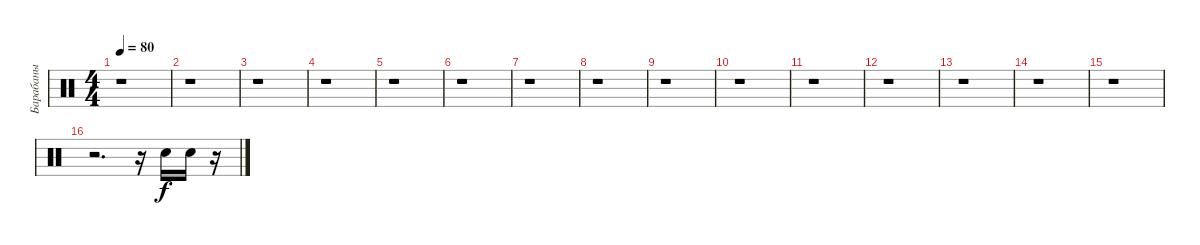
\track ("Барабаны" "Барабаны") {instrument percussion}
\staff {score}
\articulation defaults
\ts (4 4)
\tempo 80
\clef neutral
\ks c
r.1{dy f} |
r.1 |
r.1 |
r.1 |
r.1 |
r.1 |
r.1 |
r.1 |
r.1 |
r.1 |
r.1 |
r.1 |
r.1 |
r.1 |
r.1 |
r.2{d} r.16 "Electric Snare (hit)".16 "Electric Snare (hit)".16 r.16
